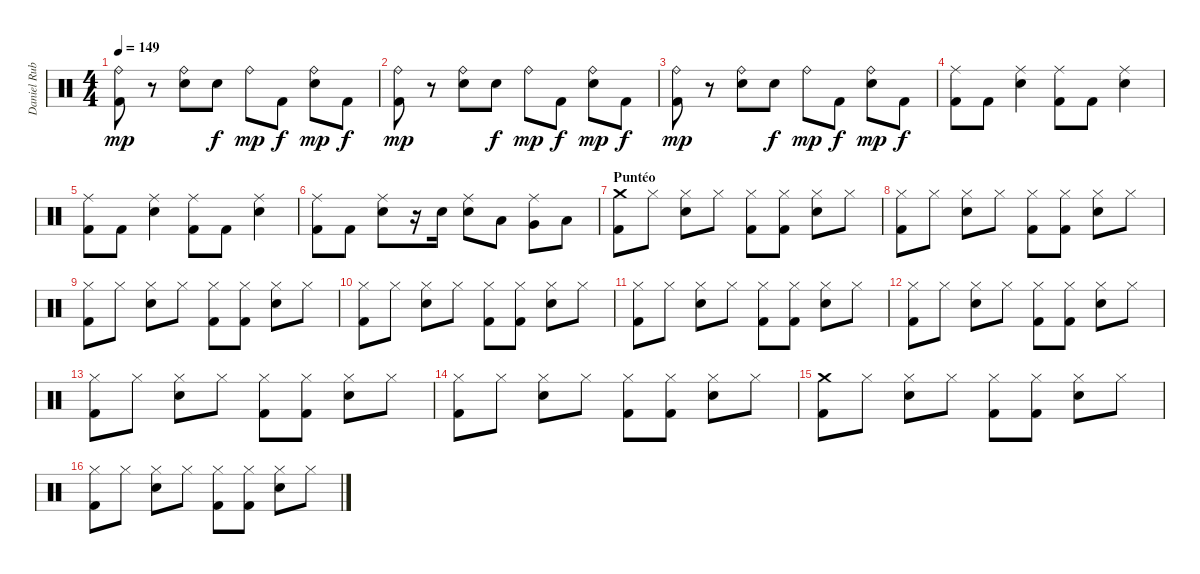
\track ("Daniel Rubiano" "Daniel Rub") {instrument percussion}
\staff {score}
\articulation defaults
\ts (4 4)
\tempo 149
\clef neutral
\ks c
("Ride (bell)" "Kick (hit) 2").8{dy mp} r.8 ("Ride (bell)" "Snare (hit) 2").8 "Snare (hit) 2".8{dy f} "Ride (bell)".8{dy mp} "Kick (hit) 2".8{dy f} ("Ride (bell)" "Snare (hit) 2").8{dy mp} "Kick (hit) 2".8{dy f} |
("Ride (bell)" "Kick (hit) 2").8{dy mp} r.8 ("Ride (bell)" "Snare (hit) 2").8 "Snare (hit) 2".8{dy f} "Ride (bell)".8{dy mp} "Kick (hit) 2".8{dy f} ("Ride (bell)" "Snare (hit) 2").8{dy mp} "Kick (hit) 2".8{dy f} |
("Ride (bell)" "Kick (hit) 2").8{dy mp} r.8 ("Ride (bell)" "Snare (hit) 2").8 "Snare (hit) 2".8{dy f} "Ride (bell)".8{dy mp} "Kick (hit) 2".8{dy f} ("Ride (bell)" "Snare (hit) 2").8{dy mp} "Kick (hit) 2".8{dy f} |
("Ride (middle)" "Kick (hit) 2").8 "Kick (hit) 2".8 ("Ride (middle)" "Snare (hit) 2").4 ("Ride (middle)" "Kick (hit) 2").8 "Kick (hit) 2".8 ("Ride (middle)" "Snare (hit) 2").4 |
("Ride (middle)" "Kick (hit) 2").8 "Kick (hit) 2".8 ("Ride (middle)" "Snare (hit) 2").4 ("Ride (middle)" "Kick (hit) 2").8 "Kick (hit) 2".8 ("Ride (middle)" "Snare (hit) 2").4 |
("Ride (middle)" "Kick (hit) 2").8 "Kick (hit) 2".8 ("Ride (middle)" "Snare (hit) 2").8 r.16 "Snare (hit) 2".16 ("Ride (middle)" "Snare (hit) 2").8 "Low Tom (hit)".8 ("Ride (middle)" "Very Low Tom (hit)").8 "Low Floor Tom (hit)".8 |
\section ("" "Puntéo")
("Crash medium (hit)" "Kick (hit) 2").8 "Hi-Hat (closed)".8 ("Hi-Hat (closed)" "Snare (hit) 2").8 "Hi-Hat (closed)".8 ("Hi-Hat (closed)" "Kick (hit) 2").8 ("Hi-Hat (closed)" "Kick (hit) 2").8 ("Hi-Hat (closed)" "Snare (hit) 2").8 "Hi-Hat (closed)".8 |
("Hi-Hat (closed)" "Kick (hit) 2").8 "Hi-Hat (closed)".8 ("Hi-Hat (closed)" "Snare (hit) 2").8 "Hi-Hat (closed)".8 ("Hi-Hat (closed)" "Kick (hit) 2").8 ("Hi-Hat (closed)" "Kick (hit) 2").8 ("Hi-Hat (closed)" "Snare (hit) 2").8 "Hi-Hat (closed)".8 |
("Hi-Hat (closed)" "Kick (hit) 2").8 "Hi-Hat (closed)".8 ("Hi-Hat (closed)" "Snare (hit) 2").8 "Hi-Hat (closed)".8 ("Hi-Hat (closed)" "Kick (hit) 2").8 ("Hi-Hat (closed)" "Kick (hit) 2").8 ("Hi-Hat (closed)" "Snare (hit) 2").8 "Hi-Hat (closed)".8 |
("Hi-Hat (closed)" "Kick (hit) 2").8 "Hi-Hat (closed)".8 ("Hi-Hat (closed)" "Snare (hit) 2").8 "Hi-Hat (closed)".8 ("Hi-Hat (closed)" "Kick (hit) 2").8 ("Hi-Hat (closed)" "Kick (hit) 2").8 ("Hi-Hat (closed)" "Snare (hit) 2").8 "Hi-Hat (closed)".8 |
("Hi-Hat (closed)" "Kick (hit) 2").8 "Hi-Hat (closed)".8 ("Hi-Hat (closed)" "Snare (hit) 2").8 "Hi-Hat (closed)".8 ("Hi-Hat (closed)" "Kick (hit) 2").8 ("Hi-Hat (closed)" "Kick (hit) 2").8 ("Hi-Hat (closed)" "Snare (hit) 2").8 "Hi-Hat (closed)".8 |
("Hi-Hat (closed)" "Kick (hit) 2").8 "Hi-Hat (closed)".8 ("Hi-Hat (closed)" "Snare (hit) 2").8 "Hi-Hat (closed)".8 ("Hi-Hat (closed)" "Kick (hit) 2").8 ("Hi-Hat (closed)" "Kick (hit) 2").8 ("Hi-Hat (closed)" "Snare (hit) 2").8 "Hi-Hat (closed)".8 |
("Hi-Hat (closed)" "Kick (hit) 2").8 "Hi-Hat (closed)".8 ("Hi-Hat (closed)" "Snare (hit) 2").8 "Hi-Hat (closed)".8 ("Hi-Hat (closed)" "Kick (hit) 2").8 ("Hi-Hat (closed)" "Kick (hit) 2").8 ("Hi-Hat (closed)" "Snare (hit) 2").8 "Hi-Hat (closed)".8 |
("Hi-Hat (closed)" "Kick (hit) 2").8 "Hi-Hat (closed)".8 ("Hi-Hat (closed)" "Snare (hit) 2").8 "Hi-Hat (closed)".8 ("Hi-Hat (closed)" "Kick (hit) 2").8 ("Hi-Hat (closed)" "Kick (hit) 2").8 ("Hi-Hat (closed)" "Snare (hit) 2").8 "Hi-Hat (closed)".8 |
("Crash medium (hit)" "Kick (hit) 2").8 "Hi-Hat (closed)".8 ("Hi-Hat (closed)" "Snare (hit) 2").8 "Hi-Hat (closed)".8 ("Hi-Hat (closed)" "Kick (hit) 2").8 ("Hi-Hat (closed)" "Kick (hit) 2").8 ("Hi-Hat (closed)" "Snare (hit) 2").8 "Hi-Hat (closed)".8 |
("Hi-Hat (closed)" "Kick (hit) 2").8 "Hi-Hat (closed)".8 ("Hi-Hat (closed)" "Snare (hit) 2").8 "Hi-Hat (closed)".8 ("Hi-Hat (closed)" "Kick (hit) 2").8 ("Hi-Hat (closed)" "Kick (hit) 2").8 ("Hi-Hat (closed)" "Snare (hit) 2").8 "Hi-Hat (closed)".8
